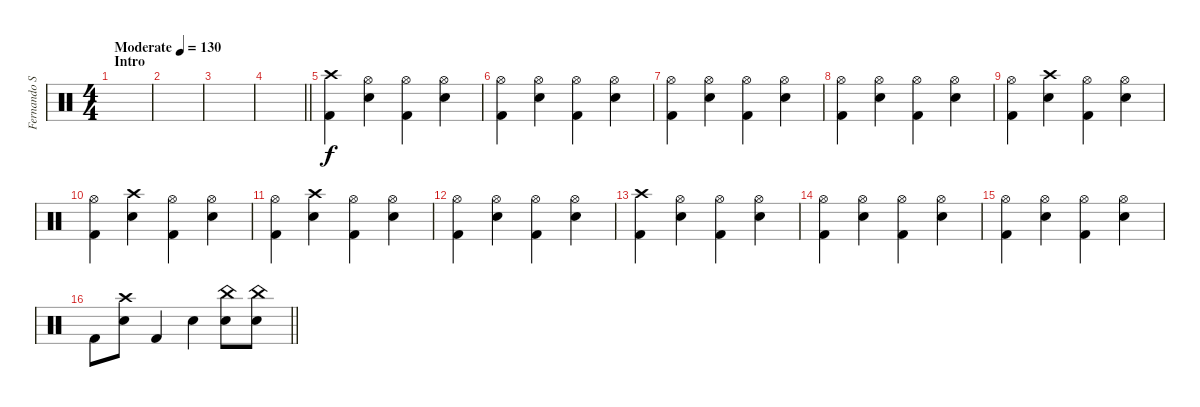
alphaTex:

\track ("Fernando Scarcella" "Fernando S") {instrument percussion}
\staff {score}
\articulation defaults
\ts (4 4)
\section ("" "Intro")
\tempo (130 "Moderate")
\clef neutral
\ks c
|
|
|
\barLineRight lightlight
|
("Crash high (hit)" "Kick (hit) 2").4 ("Hi-Hat (open)" "Snare (hit) 2").4 ("Hi-Hat (open)" "Kick (hit) 2").4 ("Hi-Hat (open)" "Snare (hit) 2").4 |
("Hi-Hat (open)" "Kick (hit) 2").4 ("Hi-Hat (open)" "Snare (hit) 2").4 ("Hi-Hat (open)" "Kick (hit) 2").4 ("Hi-Hat (open)" "Snare (hit) 2").4 |
("Hi-Hat (open)" "Kick (hit) 2").4 ("Hi-Hat (open)" "Snare (hit) 2").4 ("Hi-Hat (open)" "Kick (hit) 2").4 ("Hi-Hat (open)" "Snare (hit) 2").4 |
("Hi-Hat (open)" "Kick (hit) 2").4 ("Hi-Hat (open)" "Snare (hit) 2").4 ("Hi-Hat (open)" "Kick (hit) 2").4 ("Hi-Hat (open)" "Snare (hit) 2").4 |
("Hi-Hat (open)" "Kick (hit) 2").4 ("Crash high (hit)" "Snare (hit) 2").4 ("Hi-Hat (open)" "Kick (hit) 2").4 ("Hi-Hat (open)" "Snare (hit) 2").4 |
("Hi-Hat (open)" "Kick (hit) 2").4 ("Crash high (hit)" "Snare (hit) 2").4 ("Hi-Hat (open)" "Kick (hit) 2").4 ("Hi-Hat (open)" "Snare (hit) 2").4 |
("Hi-Hat (open)" "Kick (hit) 2").4 ("Crash high (hit)" "Snare (hit) 2").4 ("Hi-Hat (open)" "Kick (hit) 2").4 ("Hi-Hat (open)" "Snare (hit) 2").4 |
("Hi-Hat (open)" "Kick (hit) 2").4 ("Hi-Hat (open)" "Snare (hit) 2").4 ("Hi-Hat (open)" "Kick (hit) 2").4 ("Hi-Hat (open)" "Snare (hit) 2").4 |
("Crash high (hit)" "Kick (hit) 2").4 ("Hi-Hat (open)" "Snare (hit) 2").4 ("Hi-Hat (open)" "Kick (hit) 2").4 ("Hi-Hat (open)" "Snare (hit) 2").4 |
("Hi-Hat (open)" "Kick (hit) 2").4 ("Hi-Hat (open)" "Snare (hit) 2").4 ("Hi-Hat (open)" "Kick (hit) 2").4 ("Hi-Hat (open)" "Snare (hit) 2").4 |
("Hi-Hat (open)" "Kick (hit) 2").4 ("Hi-Hat (open)" "Snare (hit) 2").4 ("Hi-Hat (open)" "Kick (hit) 2").4 ("Hi-Hat (open)" "Snare (hit) 2").4 |
\barLineRight lightlight "Kick (hit) 2".8
("Crash high (hit)" "Snare (hit) 2").8 "Kick (hit) 2".4 "Snare (hit) 2".4 ("China (hit)" "Snare (hit) 2").8 ("China (hit)" "Snare (hit) 2").8
